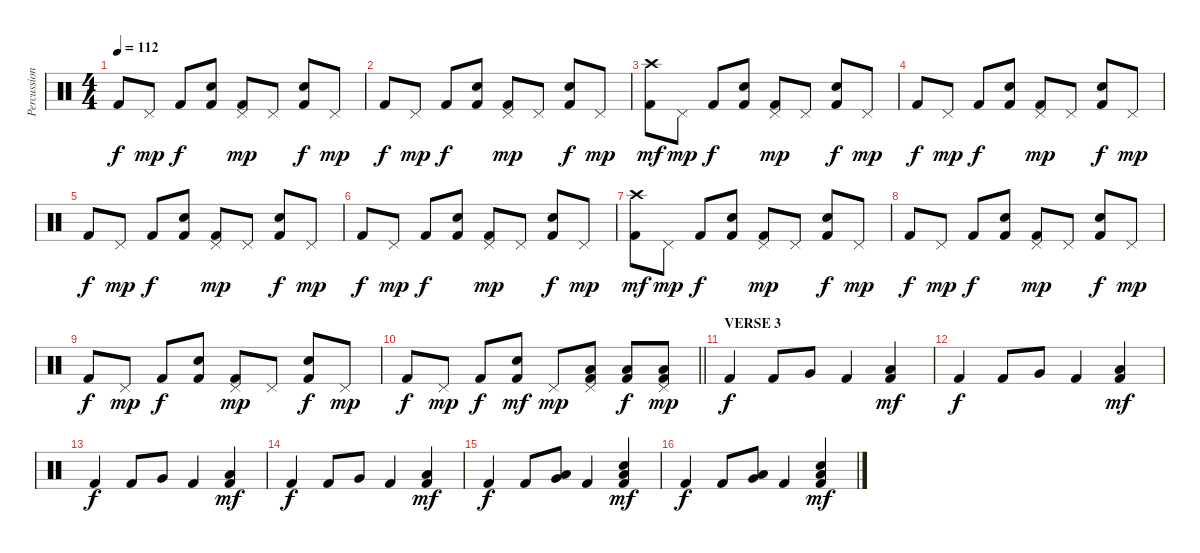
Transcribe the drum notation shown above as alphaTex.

\track ("Percussion" "Percussion") {instrument percussion}
\staff {score}
\articulation defaults
\ts (4 4)
\tempo 112
\clef neutral
\ks c "Kick (hit) 2".8{dy f} "Pedal Hi-Hat (hit)".8{dy mp} "Kick (hit) 2".8{dy f}
("Kick (hit) 2" "Snare (hit) 2").8 ("Kick (hit) 2" "Pedal Hi-Hat (hit)").8{dy mp} "Pedal Hi-Hat (hit)".8 ("Kick (hit) 2" "Snare (hit) 2").8{dy f} "Pedal Hi-Hat (hit)".8{dy mp} |
"Kick (hit) 2".8{dy f} "Pedal Hi-Hat (hit)".8{dy mp} "Kick (hit) 2".8{dy f} ("Kick (hit) 2" "Snare (hit) 2").8 ("Kick (hit) 2" "Pedal Hi-Hat (hit)").8{dy mp} "Pedal Hi-Hat (hit)".8 ("Kick (hit) 2" "Snare (hit) 2").8{dy f} "Pedal Hi-Hat (hit)".8{dy mp} |
("Kick (hit) 2" "Crash high (hit)").8{dy mf} "Pedal Hi-Hat (hit)".8{dy mp} "Kick (hit) 2".8{dy f} ("Kick (hit) 2" "Snare (hit) 2").8 ("Kick (hit) 2" "Pedal Hi-Hat (hit)").8{dy mp} "Pedal Hi-Hat (hit)".8 ("Kick (hit) 2" "Snare (hit) 2").8{dy f} "Pedal Hi-Hat (hit)".8{dy mp} |
"Kick (hit) 2".8{dy f} "Pedal Hi-Hat (hit)".8{dy mp} "Kick (hit) 2".8{dy f} ("Kick (hit) 2" "Snare (hit) 2").8 ("Kick (hit) 2" "Pedal Hi-Hat (hit)").8{dy mp} "Pedal Hi-Hat (hit)".8 ("Kick (hit) 2" "Snare (hit) 2").8{dy f} "Pedal Hi-Hat (hit)".8{dy mp} |
"Kick (hit) 2".8{dy f} "Pedal Hi-Hat (hit)".8{dy mp} "Kick (hit) 2".8{dy f} ("Kick (hit) 2" "Snare (hit) 2").8 ("Kick (hit) 2" "Pedal Hi-Hat (hit)").8{dy mp} "Pedal Hi-Hat (hit)".8 ("Kick (hit) 2" "Snare (hit) 2").8{dy f} "Pedal Hi-Hat (hit)".8{dy mp} |
"Kick (hit) 2".8{dy f} "Pedal Hi-Hat (hit)".8{dy mp} "Kick (hit) 2".8{dy f} ("Kick (hit) 2" "Snare (hit) 2").8 ("Kick (hit) 2" "Pedal Hi-Hat (hit)").8{dy mp} "Pedal Hi-Hat (hit)".8 ("Kick (hit) 2" "Snare (hit) 2").8{dy f} "Pedal Hi-Hat (hit)".8{dy mp} |
("Kick (hit) 2" "Crash high (hit)").8{dy mf} "Pedal Hi-Hat (hit)".8{dy mp} "Kick (hit) 2".8{dy f} ("Kick (hit) 2" "Snare (hit) 2").8 ("Kick (hit) 2" "Pedal Hi-Hat (hit)").8{dy mp} "Pedal Hi-Hat (hit)".8 ("Kick (hit) 2" "Snare (hit) 2").8{dy f} "Pedal Hi-Hat (hit)".8{dy mp} |
"Kick (hit) 2".8{dy f} "Pedal Hi-Hat (hit)".8{dy mp} "Kick (hit) 2".8{dy f} ("Kick (hit) 2" "Snare (hit) 2").8 ("Kick (hit) 2" "Pedal Hi-Hat (hit)").8{dy mp} "Pedal Hi-Hat (hit)".8 ("Kick (hit) 2" "Snare (hit) 2").8{dy f} "Pedal Hi-Hat (hit)".8{dy mp} |
"Kick (hit) 2".8{dy f} "Pedal Hi-Hat (hit)".8{dy mp} "Kick (hit) 2".8{dy f} ("Kick (hit) 2" "Snare (hit) 2").8 ("Kick (hit) 2" "Pedal Hi-Hat (hit)").8{dy mp} "Pedal Hi-Hat (hit)".8 ("Kick (hit) 2" "Snare (hit) 2").8{dy f} "Pedal Hi-Hat (hit)".8{dy mp} |
\barLineRight lightlight "Kick (hit) 2".8{dy f} "Pedal Hi-Hat (hit)".8{dy mp} "Kick (hit) 2".8{dy f}
("Kick (hit) 2" "Snare (hit) 2").8{dy mf} "Pedal Hi-Hat (hit)".8{dy mp} ("Kick (hit) 2" "Low Floor Tom (hit)" "Pedal Hi-Hat (hit)").8 ("Kick (hit) 2" "Low Floor Tom (hit)").8{dy f} ("Kick (hit) 2" "Low Floor Tom (hit)" "Pedal Hi-Hat (hit)").8{dy mp} |
\section ("" "VERSE 3")
"Kick (hit) 2".4{dy f} "Kick (hit) 2".8 "Very Low Tom (hit)".8 "Kick (hit) 2".4 ("Kick (hit) 2" "Low Floor Tom (hit)").4{dy mf} |
"Kick (hit) 2".4{dy f} "Kick (hit) 2".8 "Very Low Tom (hit)".8 "Kick (hit) 2".4 ("Kick (hit) 2" "Low Floor Tom (hit)").4{dy mf} |
"Kick (hit) 2".4{dy f} "Kick (hit) 2".8 "Very Low Tom (hit)".8 "Kick (hit) 2".4 ("Kick (hit) 2" "Low Floor Tom (hit)").4{dy mf} |
"Kick (hit) 2".4{dy f} "Kick (hit) 2".8 "Very Low Tom (hit)".8 "Kick (hit) 2".4 ("Kick (hit) 2" "Low Floor Tom (hit)").4{dy mf} |
"Kick (hit) 2".4{dy f} "Kick (hit) 2".8 ("Low Floor Tom (hit)" "Very Low Tom (hit)").8 "Kick (hit) 2".4 ("Kick (hit) 2" "Low Floor Tom (hit)" "Snare (hit) 2").4{dy mf} |
"Kick (hit) 2".4{dy f} "Kick (hit) 2".8 ("Low Floor Tom (hit)" "Very Low Tom (hit)").8 "Kick (hit) 2".4 ("Kick (hit) 2" "Low Floor Tom (hit)" "Snare (hit) 2").4{dy mf}
